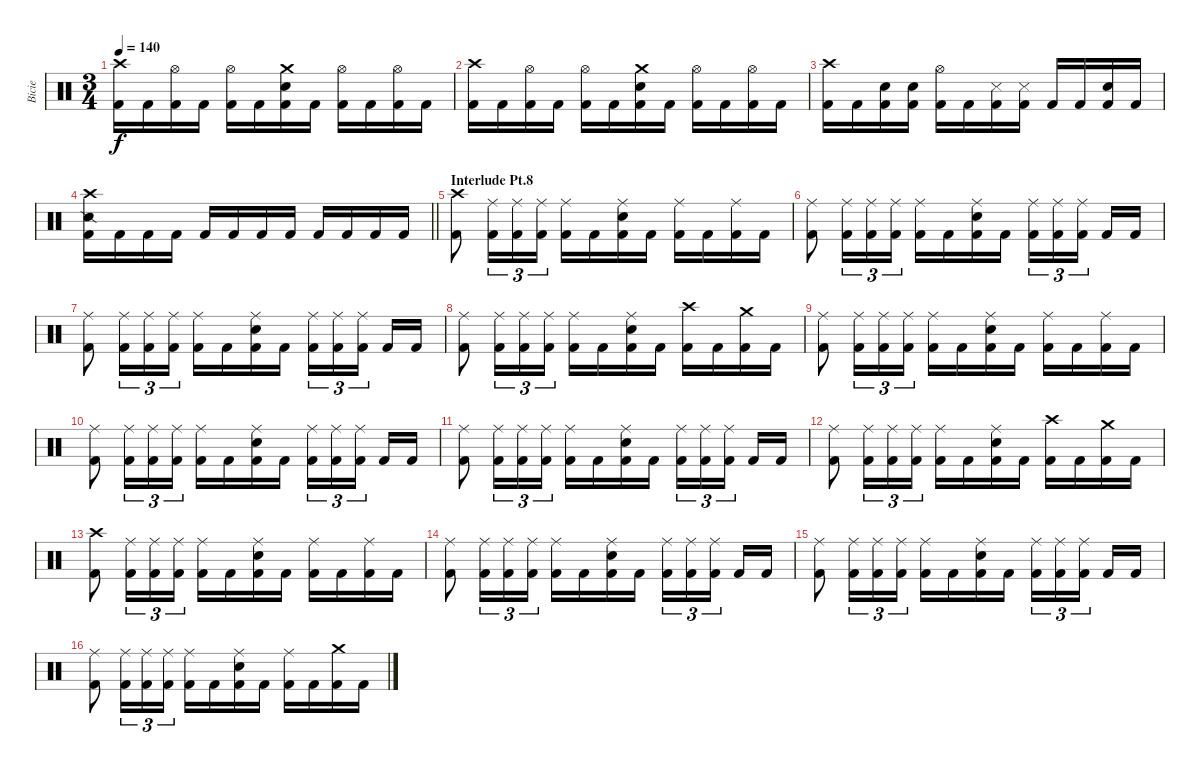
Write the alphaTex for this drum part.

\track ("Bicie" "Bicie") {instrument percussion}
\staff {score}
\articulation defaults
\ts (3 4)
\tempo 140
\clef neutral
\ks c
("Crash high (hit)" "Kick (hit) 2").16{dy f} "Kick (hit) 2".16 ("Hi-Hat (open)" "Kick (hit) 2").16 "Kick (hit) 2".16 ("Hi-Hat (open)" "Kick (hit) 2").16 "Kick (hit) 2".16 ("Crash medium (hit)" "Snare (hit) 2" "Kick (hit) 2").16 "Kick (hit) 2".16 ("Hi-Hat (open)" "Kick (hit) 2").16 "Kick (hit) 2".16 ("Hi-Hat (open)" "Kick (hit) 2").16 "Kick (hit) 2".16 |
("Crash high (hit)" "Kick (hit) 2").16 "Kick (hit) 2".16 ("Hi-Hat (open)" "Kick (hit) 2").16 "Kick (hit) 2".16 ("Hi-Hat (open)" "Kick (hit) 2").16 "Kick (hit) 2".16 ("Crash medium (hit)" "Snare (hit) 2" "Kick (hit) 2").16 "Kick (hit) 2".16 ("Hi-Hat (open)" "Kick (hit) 2").16 "Kick (hit) 2".16 ("Hi-Hat (open)" "Kick (hit) 2").16 "Kick (hit) 2".16 |
("Crash high (hit)" "Kick (hit) 2").16 "Kick (hit) 2".16 ("Snare (hit) 2" "Kick (hit) 2").16 ("Snare (hit) 2" "Kick (hit) 2").16 ("Hi-Hat (open)" "Kick (hit) 2").16 "Kick (hit) 2".16 ("Snare (side stick) 3" "Kick (hit) 2").16 ("Snare (side stick) 3" "Kick (hit) 2").16 "Kick (hit) 2".16 "Kick (hit) 2".16 ("Metronome (bell)" "Kick (hit) 2").16 "Kick (hit) 2".16 |
\barLineRight lightlight
("Crash high (hit)" "Snare (side stick) 2" "Kick (hit) 2").16 "Kick (hit) 2".16 "Kick (hit) 2".16 "Kick (hit) 2".16 "Kick (hit) 2".16 "Kick (hit) 2".16 "Kick (hit) 2".16 "Kick (hit) 2".16 "Kick (hit) 2".16 "Kick (hit) 2".16 "Kick (hit) 2".16 "Kick (hit) 2".16 |
\section ("" "Interlude Pt.8")
("Crash high (hit)" "Kick (hit) 2").8 ("Ride (middle)" "Kick (hit) 2").16{tu (3 2)} ("Ride (middle)" "Kick (hit) 2").16{tu (3 2)} ("Ride (middle)" "Kick (hit) 2").16{tu (3 2)} ("Ride (middle)" "Kick (hit) 2").16 "Kick (hit) 2".16 ("Ride (middle)" "Snare (hit) 2" "Kick (hit) 2").16 "Kick (hit) 2".16 ("Ride (middle)" "Kick (hit) 2").16 "Kick (hit) 2".16 ("Ride (middle)" "Kick (hit) 2").16 "Kick (hit) 2".16 |
("Ride (middle)" "Kick (hit) 2").8 ("Ride (middle)" "Kick (hit) 2").16{tu (3 2)} ("Ride (middle)" "Kick (hit) 2").16{tu (3 2)} ("Ride (middle)" "Kick (hit) 2").16{tu (3 2)} ("Ride (middle)" "Kick (hit) 2").16 "Kick (hit) 2".16 ("Ride (middle)" "Snare (hit) 2" "Kick (hit) 2").16 "Kick (hit) 2".16 ("Ride (middle)" "Kick (hit) 2").16{tu (3 2)} ("Ride (middle)" "Kick (hit) 2").16{tu (3 2)} ("Ride (middle)" "Kick (hit) 2").16{tu (3 2) beam splitsecondary} "Kick (hit) 2".16 "Kick (hit) 2".16 |
("Ride (middle)" "Kick (hit) 2").8 ("Ride (middle)" "Kick (hit) 2").16{tu (3 2)} ("Ride (middle)" "Kick (hit) 2").16{tu (3 2)} ("Ride (middle)" "Kick (hit) 2").16{tu (3 2)} ("Ride (middle)" "Kick (hit) 2").16 "Kick (hit) 2".16 ("Ride (middle)" "Snare (hit) 2" "Kick (hit) 2").16 "Kick (hit) 2".16 ("Ride (middle)" "Kick (hit) 2").16{tu (3 2)} ("Ride (middle)" "Kick (hit) 2").16{tu (3 2)} ("Ride (middle)" "Kick (hit) 2").16{tu (3 2) beam splitsecondary} "Kick (hit) 2".16 "Kick (hit) 2".16 |
("Ride (middle)" "Kick (hit) 2").8 ("Ride (middle)" "Kick (hit) 2").16{tu (3 2)} ("Ride (middle)" "Kick (hit) 2").16{tu (3 2)} ("Ride (middle)" "Kick (hit) 2").16{tu (3 2)} ("Ride (middle)" "Kick (hit) 2").16 "Kick (hit) 2".16 ("Ride (middle)" "Snare (hit) 2" "Kick (hit) 2").16 "Kick (hit) 2".16 ("Crash high (hit)" "Kick (hit) 2").16 "Kick (hit) 2".16 ("Crash medium (hit)" "Kick (hit) 2").16 "Kick (hit) 2".16 |
("Ride (middle)" "Kick (hit) 2").8 ("Ride (middle)" "Kick (hit) 2").16{tu (3 2)} ("Ride (middle)" "Kick (hit) 2").16{tu (3 2)} ("Ride (middle)" "Kick (hit) 2").16{tu (3 2)} ("Ride (middle)" "Kick (hit) 2").16 "Kick (hit) 2".16 ("Ride (middle)" "Snare (hit) 2" "Kick (hit) 2").16 "Kick (hit) 2".16 ("Ride (middle)" "Kick (hit) 2").16 "Kick (hit) 2".16 ("Ride (middle)" "Kick (hit) 2").16 "Kick (hit) 2".16 |
("Ride (middle)" "Kick (hit) 2").8 ("Ride (middle)" "Kick (hit) 2").16{tu (3 2)} ("Ride (middle)" "Kick (hit) 2").16{tu (3 2)} ("Ride (middle)" "Kick (hit) 2").16{tu (3 2)} ("Ride (middle)" "Kick (hit) 2").16 "Kick (hit) 2".16 ("Ride (middle)" "Snare (hit) 2" "Kick (hit) 2").16 "Kick (hit) 2".16 ("Ride (middle)" "Kick (hit) 2").16{tu (3 2)} ("Ride (middle)" "Kick (hit) 2").16{tu (3 2)} ("Ride (middle)" "Kick (hit) 2").16{tu (3 2) beam splitsecondary} "Kick (hit) 2".16 "Kick (hit) 2".16 |
("Ride (middle)" "Kick (hit) 2").8 ("Ride (middle)" "Kick (hit) 2").16{tu (3 2)} ("Ride (middle)" "Kick (hit) 2").16{tu (3 2)} ("Ride (middle)" "Kick (hit) 2").16{tu (3 2)} ("Ride (middle)" "Kick (hit) 2").16 "Kick (hit) 2".16 ("Ride (middle)" "Snare (hit) 2" "Kick (hit) 2").16 "Kick (hit) 2".16 ("Ride (middle)" "Kick (hit) 2").16{tu (3 2)} ("Ride (middle)" "Kick (hit) 2").16{tu (3 2)} ("Ride (middle)" "Kick (hit) 2").16{tu (3 2) beam splitsecondary} "Kick (hit) 2".16 "Kick (hit) 2".16 |
("Ride (middle)" "Kick (hit) 2").8 ("Ride (middle)" "Kick (hit) 2").16{tu (3 2)} ("Ride (middle)" "Kick (hit) 2").16{tu (3 2)} ("Ride (middle)" "Kick (hit) 2").16{tu (3 2)} ("Ride (middle)" "Kick (hit) 2").16 "Kick (hit) 2".16 ("Ride (middle)" "Snare (hit) 2" "Kick (hit) 2").16 "Kick (hit) 2".16 ("Crash high (hit)" "Kick (hit) 2").16 "Kick (hit) 2".16 ("Crash medium (hit)" "Kick (hit) 2").16 "Kick (hit) 2".16 |
("Crash high (hit)" "Kick (hit) 2").8 ("Ride (middle)" "Kick (hit) 2").16{tu (3 2)} ("Ride (middle)" "Kick (hit) 2").16{tu (3 2)} ("Ride (middle)" "Kick (hit) 2").16{tu (3 2)} ("Ride (middle)" "Kick (hit) 2").16 "Kick (hit) 2".16 ("Ride (middle)" "Snare (hit) 2" "Kick (hit) 2").16 "Kick (hit) 2".16 ("Ride (middle)" "Kick (hit) 2").16 "Kick (hit) 2".16 ("Ride (middle)" "Kick (hit) 2").16 "Kick (hit) 2".16 |
("Ride (middle)" "Kick (hit) 2").8 ("Ride (middle)" "Kick (hit) 2").16{tu (3 2)} ("Ride (middle)" "Kick (hit) 2").16{tu (3 2)} ("Ride (middle)" "Kick (hit) 2").16{tu (3 2)} ("Ride (middle)" "Kick (hit) 2").16 "Kick (hit) 2".16 ("Ride (middle)" "Snare (hit) 2" "Kick (hit) 2").16 "Kick (hit) 2".16 ("Ride (middle)" "Kick (hit) 2").16{tu (3 2)} ("Ride (middle)" "Kick (hit) 2").16{tu (3 2)} ("Ride (middle)" "Kick (hit) 2").16{tu (3 2) beam splitsecondary} "Kick (hit) 2".16 "Kick (hit) 2".16 |
("Ride (middle)" "Kick (hit) 2").8 ("Ride (middle)" "Kick (hit) 2").16{tu (3 2)} ("Ride (middle)" "Kick (hit) 2").16{tu (3 2)} ("Ride (middle)" "Kick (hit) 2").16{tu (3 2)} ("Ride (middle)" "Kick (hit) 2").16 "Kick (hit) 2".16 ("Ride (middle)" "Snare (hit) 2" "Kick (hit) 2").16 "Kick (hit) 2".16 ("Ride (middle)" "Kick (hit) 2").16{tu (3 2)} ("Ride (middle)" "Kick (hit) 2").16{tu (3 2)} ("Ride (middle)" "Kick (hit) 2").16{tu (3 2) beam splitsecondary} "Kick (hit) 2".16 "Kick (hit) 2".16 |
("Ride (middle)" "Kick (hit) 2").8 ("Ride (middle)" "Kick (hit) 2").16{tu (3 2)} ("Ride (middle)" "Kick (hit) 2").16{tu (3 2)} ("Ride (middle)" "Kick (hit) 2").16{tu (3 2)} ("Ride (middle)" "Kick (hit) 2").16 "Kick (hit) 2".16 ("Ride (middle)" "Snare (hit) 2" "Kick (hit) 2").16 "Kick (hit) 2".16 ("Ride (middle)" "Kick (hit) 2").16 "Kick (hit) 2".16 ("Crash medium (hit)" "Kick (hit) 2").16 "Kick (hit) 2".16
